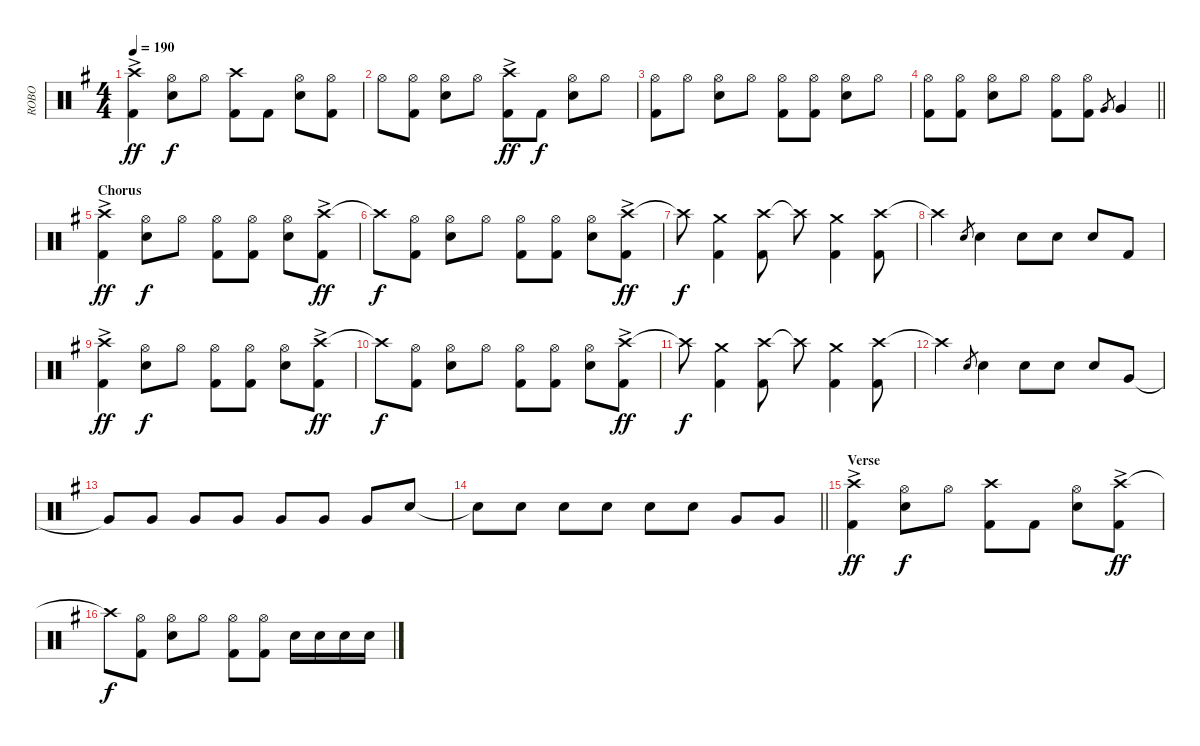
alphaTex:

\track ("ROBO" "ROBO") {instrument percussion}
\staff {score}
\articulation defaults
\ts (4 4)
\tempo 190
\clef neutral
\ks eminor
("Crash high (hit)"{ac} "Kick (hit) 2").4{dy ff} ("Hi-Hat (open)" "Snare (hit) 2").8{dy f} "Hi-Hat (open)".8 ("Crash high (hit)" "Kick (hit) 2").8 "Kick (hit) 2".8 ("Hi-Hat (open)" "Snare (hit) 2").8 ("Hi-Hat (open)" "Kick (hit) 2").8 |
"Hi-Hat (open)".8 ("Hi-Hat (open)" "Kick (hit) 2").8 ("Hi-Hat (open)" "Snare (hit) 2").8 "Hi-Hat (open)".8 ("Crash high (hit)"{ac} "Kick (hit) 2").8{dy ff} "Kick (hit) 2".8{dy f} ("Hi-Hat (open)" "Snare (hit) 2").8 "Hi-Hat (open)".8 |
("Hi-Hat (open)" "Kick (hit) 2").8 "Hi-Hat (open)".8 ("Hi-Hat (open)" "Snare (hit) 2").8 "Hi-Hat (open)".8 ("Hi-Hat (open)" "Kick (hit) 2").8 ("Hi-Hat (open)" "Kick (hit) 2").8 ("Hi-Hat (open)" "Snare (hit) 2").8 "Hi-Hat (open)".8 |
\barLineRight lightlight
("Hi-Hat (open)" "Kick (hit) 2").8 ("Hi-Hat (open)" "Kick (hit) 2").8 ("Hi-Hat (open)" "Snare (hit) 2").8 "Hi-Hat (open)".8 ("Hi-Hat (open)" "Kick (hit) 2").8 ("Hi-Hat (open)" "Kick (hit) 2").8 "Very Low Tom (hit)".8{gr} "Very Low Tom (hit)".4 |
\section ("" "Chorus")
("Crash high (hit)"{ac} "Kick (hit) 2").4{dy ff} ("Hi-Hat (open)" "Snare (hit) 2").8{dy f} "Hi-Hat (open)".8 ("Hi-Hat (open)" "Kick (hit) 2").8 ("Hi-Hat (open)" "Kick (hit) 2").8 ("Hi-Hat (open)" "Snare (hit) 2").8 ("Crash high (hit)"{ac} "Kick (hit) 2").8{dy ff} |
"Crash high (hit)"{t}.8{dy f} ("Hi-Hat (open)" "Kick (hit) 2").8 ("Hi-Hat (open)" "Snare (hit) 2").8 "Hi-Hat (open)".8 ("Hi-Hat (open)" "Kick (hit) 2").8 ("Hi-Hat (open)" "Kick (hit) 2").8 ("Hi-Hat (open)" "Snare (hit) 2").8 ("Crash high (hit)"{ac} "Kick (hit) 2").8{dy ff} |
"Crash high (hit)"{t}.8{dy f} ("Crash medium (hit)" "Kick (hit) 2").4 ("Crash high (hit)" "Kick (hit) 2").8 "Crash high (hit)"{t}.8 ("Crash medium (hit)" "Kick (hit) 2").4 ("Crash high (hit)" "Kick (hit) 2").8 |
"Crash high (hit)"{t}.4 "Snare (hit) 2".8{gr} "Snare (hit) 2".4 "Snare (hit) 2".8 "Snare (hit) 2".8 "Snare (hit) 2".8 "Kick (hit) 2".8 |
("Crash high (hit)"{ac} "Kick (hit) 2").4{dy ff} ("Hi-Hat (open)" "Snare (hit) 2").8{dy f} "Hi-Hat (open)".8 ("Hi-Hat (open)" "Kick (hit) 2").8 ("Hi-Hat (open)" "Kick (hit) 2").8 ("Hi-Hat (open)" "Snare (hit) 2").8 ("Crash high (hit)"{ac} "Kick (hit) 2").8{dy ff} |
"Crash high (hit)"{t}.8{dy f} ("Hi-Hat (open)" "Kick (hit) 2").8 ("Hi-Hat (open)" "Snare (hit) 2").8 "Hi-Hat (open)".8 ("Hi-Hat (open)" "Kick (hit) 2").8 ("Hi-Hat (open)" "Kick (hit) 2").8 ("Hi-Hat (open)" "Snare (hit) 2").8 ("Crash high (hit)"{ac} "Kick (hit) 2").8{dy ff} |
"Crash high (hit)"{t}.8{dy f} ("Crash medium (hit)" "Kick (hit) 2").4 ("Crash high (hit)" "Kick (hit) 2").8 "Crash high (hit)"{t}.8 ("Crash medium (hit)" "Kick (hit) 2").4 ("Crash high (hit)" "Kick (hit) 2").8 |
"Crash high (hit)"{t}.4 "Snare (hit) 2".8{gr} "Snare (hit) 2".4 "Snare (hit) 2".8 "Snare (hit) 2".8 "Snare (hit) 2".8 "Very Low Tom (hit)".8 |
"Very Low Tom (hit)"{t}.8 "Very Low Tom (hit)".8 "Very Low Tom (hit)".8 "Very Low Tom (hit)".8 "Very Low Tom (hit)".8 "Very Low Tom (hit)".8 "Very Low Tom (hit)".8 "Snare (hit) 2".8 |
\barLineRight lightlight "Snare (hit) 2"{t}.8 "Snare (hit) 2".8 "Snare (hit) 2".8 "Snare (hit) 2".8 "Snare (hit) 2".8 "Snare (hit) 2".8 "Very Low Tom (hit)".8 "Very Low Tom (hit)".8
|
\section ("" "Verse")
("Crash high (hit)"{ac} "Kick (hit) 2").4{dy ff} ("Hi-Hat (open)" "Snare (hit) 2").8{dy f} "Hi-Hat (open)".8 ("Crash high (hit)" "Kick (hit) 2").8 "Kick (hit) 2".8 ("Hi-Hat (open)" "Snare (hit) 2").8 ("Crash high (hit)"{ac} "Kick (hit) 2").8{dy ff} |
"Crash high (hit)"{t}.8{dy f} ("Hi-Hat (open)" "Kick (hit) 2").8 ("Hi-Hat (open)" "Snare (hit) 2").8 "Hi-Hat (open)".8 ("Hi-Hat (open)" "Kick (hit) 2").8 ("Hi-Hat (open)" "Kick (hit) 2").8 "Snare (hit) 2".16 "Snare (hit) 2".16 "Snare (hit) 2".16 "Snare (hit) 2".16
